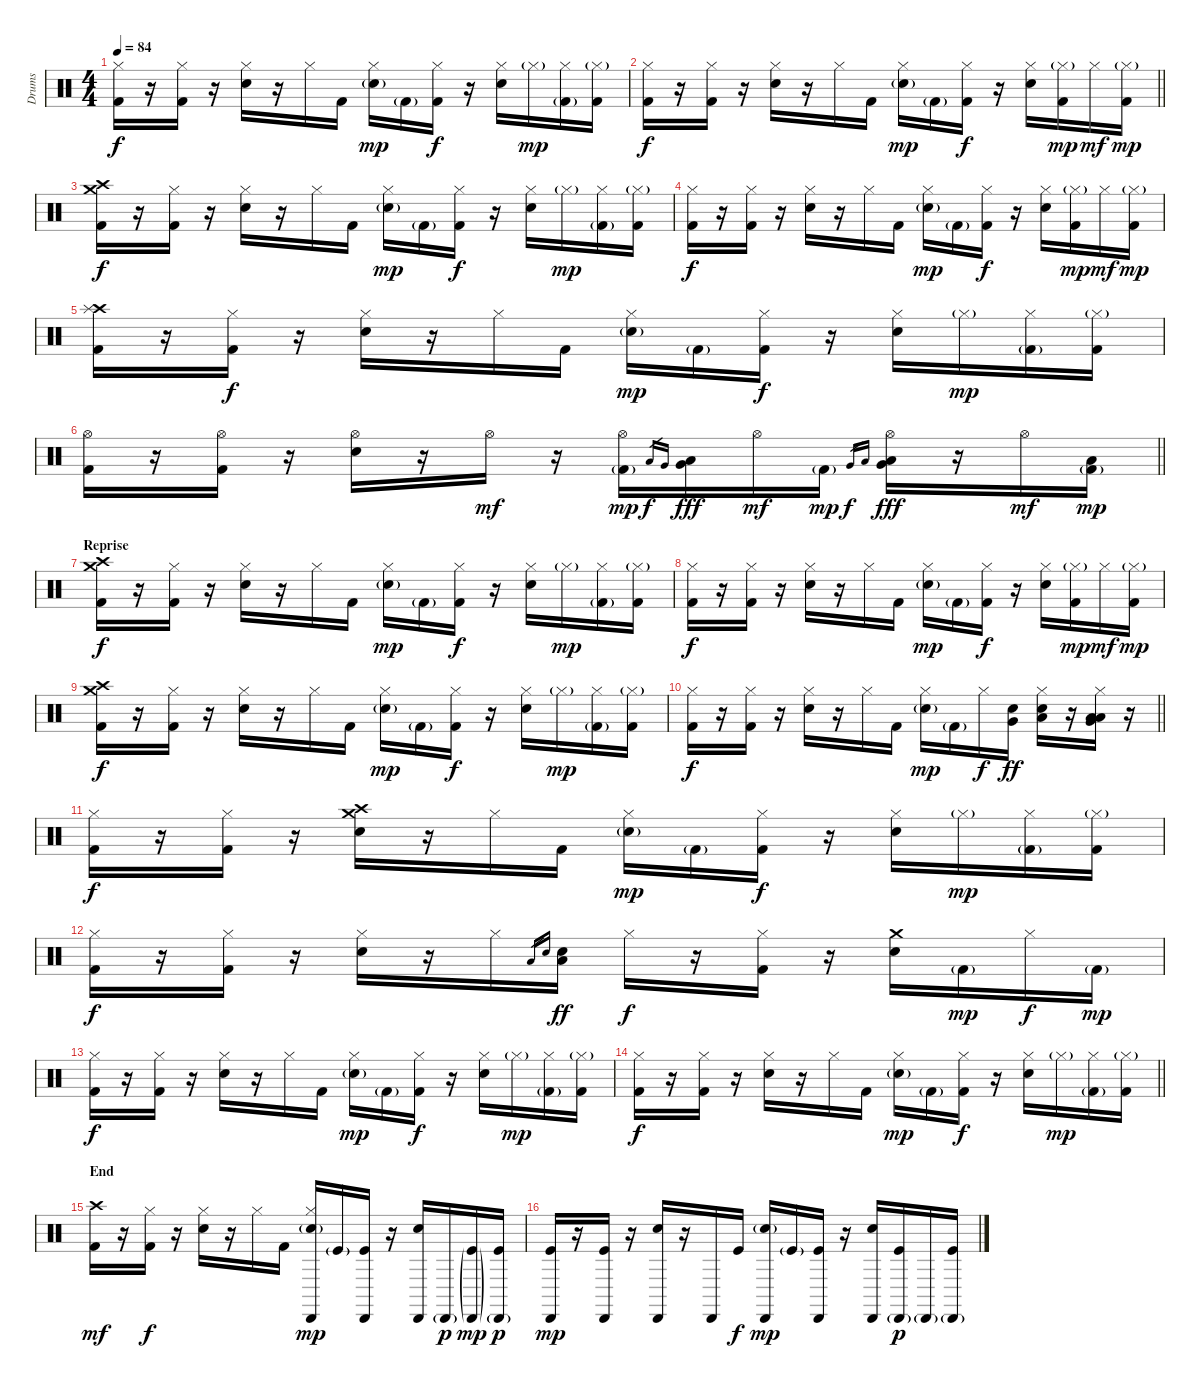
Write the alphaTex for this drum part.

\track ("Drums" "Drums") {instrument percussion}
\staff {score}
\articulation defaults
\ts (4 4)
\tempo 84
\clef neutral
\ks c
("Hi-Hat (closed)" "Kick (hit) 2").16{dy f} r.16 ("Hi-Hat (closed)" "Kick (hit) 2").16 r.16 ("Hi-Hat (closed)" "Electric Snare (hit)").16 r.16 "Hi-Hat (closed)".16 "Kick (hit) 2".16 ("Hi-Hat (closed)" "Electric Snare (hit)"{g}).16{dy mp} "Kick (hit) 2"{g}.16 ("Hi-Hat (closed)" "Kick (hit) 2").16{dy f} r.16 ("Hi-Hat (closed)" "Electric Snare (hit)").16 "Hi-Hat (closed)"{g}.16{dy mp} ("Hi-Hat (closed)" "Kick (hit) 2"{g}).16 ("Hi-Hat (closed)"{g} "Kick (hit) 2").16 |
\barLineRight lightlight
("Hi-Hat (closed)" "Kick (hit) 2").16{dy f} r.16 ("Hi-Hat (closed)" "Kick (hit) 2").16 r.16 ("Hi-Hat (closed)" "Electric Snare (hit)").16 r.16 "Hi-Hat (closed)".16 "Kick (hit) 2".16 ("Hi-Hat (closed)" "Electric Snare (hit)"{g}).16{dy mp} "Kick (hit) 2"{g}.16 ("Hi-Hat (closed)" "Kick (hit) 2").16{dy f} r.16 ("Hi-Hat (closed)" "Electric Snare (hit)").16 ("Hi-Hat (closed)"{g} "Kick (hit) 2").16{dy mp} "Hi-Hat (closed)".16{dy mf} ("Hi-Hat (closed)"{g} "Kick (hit) 2").16{dy mp} |
("Crash high (hit)" "Crash medium (hit)" "Kick (hit) 2").16{dy f} r.16 ("Hi-Hat (closed)" "Kick (hit) 2").16 r.16 ("Hi-Hat (closed)" "Electric Snare (hit)").16 r.16 "Hi-Hat (closed)".16 "Kick (hit) 2".16 ("Hi-Hat (closed)" "Electric Snare (hit)"{g}).16{dy mp} "Kick (hit) 2"{g}.16 ("Hi-Hat (closed)" "Kick (hit) 2").16{dy f} r.16 ("Hi-Hat (closed)" "Electric Snare (hit)").16 "Hi-Hat (closed)"{g}.16{dy mp} ("Hi-Hat (closed)" "Kick (hit) 2"{g}).16 ("Hi-Hat (closed)"{g} "Kick (hit) 2").16 |
("Hi-Hat (closed)" "Kick (hit) 2").16{dy f} r.16 ("Hi-Hat (closed)" "Kick (hit) 2").16 r.16 ("Hi-Hat (closed)" "Electric Snare (hit)").16 r.16 "Hi-Hat (closed)".16 "Kick (hit) 2".16 ("Hi-Hat (closed)" "Electric Snare (hit)"{g}).16{dy mp} "Kick (hit) 2"{g}.16 ("Hi-Hat (closed)" "Kick (hit) 2").16{dy f} r.16 ("Hi-Hat (closed)" "Electric Snare (hit)").16 ("Hi-Hat (closed)"{g} "Kick (hit) 2").16{dy mp} "Hi-Hat (closed)".16{dy mf} ("Hi-Hat (closed)"{g} "Kick (hit) 2").16{dy mp} |
("Crash high (hit)" "Splash (hit)" "Kick (hit) 2").16 r.16 ("Hi-Hat (closed)" "Kick (hit) 2").16{dy f} r.16 ("Hi-Hat (closed)" "Electric Snare (hit)").16 r.16 "Hi-Hat (closed)".16 "Kick (hit) 2".16 ("Hi-Hat (closed)" "Electric Snare (hit)"{g}).16{dy mp} "Kick (hit) 2"{g}.16 ("Hi-Hat (closed)" "Kick (hit) 2").16{dy f} r.16 ("Hi-Hat (closed)" "Electric Snare (hit)").16 "Hi-Hat (closed)"{g}.16{dy mp} ("Hi-Hat (closed)" "Kick (hit) 2"{g}).16 ("Hi-Hat (closed)"{g} "Kick (hit) 2").16 |
\barLineRight lightlight
("Hi-Hat (open)" "Kick (hit) 2").16 r.16 ("Hi-Hat (open)" "Kick (hit) 2").16 r.16 ("Hi-Hat (open)" "Electric Snare (hit)").16 r.16 "Hi-Hat (open)".16{dy mf} r.16 ("Hi-Hat (open)" "Kick (hit) 2"{g}).16{dy mp} "Low Tom (hit)".16{gr dy f} "Very Low Tom (hit)".16{gr} ("Low Tom (hit)" "Very Low Tom (hit)").16{dy fff} "Hi-Hat (open)".16{dy mf} "Kick (hit) 2"{g}.16{dy mp} "Very Low Tom (hit)".16{gr dy f} "Low Floor Tom (hit)".16{gr} ("Hi-Hat (open)" "Very Low Tom (hit)" "Low Floor Tom (hit)").16{dy fff} r.16 "Hi-Hat (open)".16{dy mf} ("Low Floor Tom (hit)" "Kick (hit) 2"{g}).16{dy mp} |
\section ("" "Reprise")
("Crash high (hit)" "Crash medium (hit)" "Kick (hit) 2").16{dy f} r.16 ("Hi-Hat (closed)" "Kick (hit) 2").16 r.16 ("Hi-Hat (closed)" "Electric Snare (hit)").16 r.16 "Hi-Hat (closed)".16 "Kick (hit) 2".16 ("Hi-Hat (closed)" "Electric Snare (hit)"{g}).16{dy mp} "Kick (hit) 2"{g}.16 ("Hi-Hat (closed)" "Kick (hit) 2").16{dy f} r.16 ("Hi-Hat (closed)" "Electric Snare (hit)").16 "Hi-Hat (closed)"{g}.16{dy mp} ("Hi-Hat (closed)" "Kick (hit) 2"{g}).16 ("Hi-Hat (closed)"{g} "Kick (hit) 2").16 |
("Hi-Hat (closed)" "Kick (hit) 2").16{dy f} r.16 ("Hi-Hat (closed)" "Kick (hit) 2").16 r.16 ("Hi-Hat (closed)" "Electric Snare (hit)").16 r.16 "Hi-Hat (closed)".16 "Kick (hit) 2".16 ("Hi-Hat (closed)" "Electric Snare (hit)"{g}).16{dy mp} "Kick (hit) 2"{g}.16 ("Hi-Hat (closed)" "Kick (hit) 2").16{dy f} r.16 ("Hi-Hat (closed)" "Electric Snare (hit)").16 ("Hi-Hat (closed)"{g} "Kick (hit) 2").16{dy mp} "Hi-Hat (closed)".16{dy mf} ("Hi-Hat (closed)"{g} "Kick (hit) 2").16{dy mp} |
("Crash high (hit)" "Crash medium (hit)" "Kick (hit) 2").16{dy f} r.16 ("Hi-Hat (closed)" "Kick (hit) 2").16 r.16 ("Hi-Hat (closed)" "Electric Snare (hit)").16 r.16 "Hi-Hat (closed)".16 "Kick (hit) 2".16 ("Hi-Hat (closed)" "Electric Snare (hit)"{g}).16{dy mp} "Kick (hit) 2"{g}.16 ("Hi-Hat (closed)" "Kick (hit) 2").16{dy f} r.16 ("Hi-Hat (closed)" "Electric Snare (hit)").16 "Hi-Hat (closed)"{g}.16{dy mp} ("Hi-Hat (closed)" "Kick (hit) 2"{g}).16 ("Hi-Hat (closed)"{g} "Kick (hit) 2").16 |
\barLineRight lightlight
("Hi-Hat (closed)" "Kick (hit) 2").16{dy f} r.16 ("Hi-Hat (closed)" "Kick (hit) 2").16 r.16 ("Hi-Hat (closed)" "Electric Snare (hit)").16 r.16 "Hi-Hat (closed)".16 "Kick (hit) 2".16 ("Hi-Hat (closed)" "Electric Snare (hit)"{g}).16{dy mp} "Kick (hit) 2"{g}.16 "Hi-Hat (closed)".16{dy f} ("Electric Snare (hit)" "Very Low Tom (hit)").16{dy ff} ("Hi-Hat (closed)" "Electric Snare (hit)" "Low Tom (hit)").16 r.16 ("Hi-Hat (closed)" "Low Tom (hit)" "Very Low Tom (hit)" "Low Floor Tom (hit)").16 r.16 |
("Hi-Hat (closed)" "Kick (hit) 2").16{dy f} r.16 ("Hi-Hat (closed)" "Kick (hit) 2").16 r.16 ("Crash high (hit)" "Crash medium (hit)" "Electric Snare (hit)").16 r.16 "Hi-Hat (closed)".16 "Kick (hit) 2".16 ("Hi-Hat (closed)" "Electric Snare (hit)"{g}).16{dy mp} "Kick (hit) 2"{g}.16 ("Hi-Hat (closed)" "Kick (hit) 2").16{dy f} r.16 ("Hi-Hat (closed)" "Electric Snare (hit)").16 "Hi-Hat (closed)"{g}.16{dy mp} ("Hi-Hat (closed)" "Kick (hit) 2"{g}).16 ("Hi-Hat (closed)"{g} "Kick (hit) 2").16 |
("Hi-Hat (closed)" "Kick (hit) 2").16{dy f} r.16 ("Hi-Hat (closed)" "Kick (hit) 2").16 r.16 ("Hi-Hat (closed)" "Electric Snare (hit)").16 r.16 "Hi-Hat (closed)".16 "Low Tom (hit)".16{gr} "Electric Snare (hit)".16{gr} ("Low Tom (hit)" "Electric Snare (hit)").16{dy ff} "Hi-Hat (closed)".16{dy f} r.16 ("Hi-Hat (closed)" "Kick (hit) 2").16 r.16 ("Crash medium (hit)" "Electric Snare (hit)").16 "Kick (hit) 2"{g}.16{dy mp} "Hi-Hat (closed)".16{dy f} "Kick (hit) 2"{g}.16{dy mp} |
("Hi-Hat (closed)" "Kick (hit) 2").16{dy f} r.16 ("Hi-Hat (closed)" "Kick (hit) 2").16 r.16 ("Hi-Hat (closed)" "Electric Snare (hit)").16 r.16 "Hi-Hat (closed)".16 "Kick (hit) 2".16 ("Hi-Hat (closed)" "Electric Snare (hit)"{g}).16{dy mp} "Kick (hit) 2"{g}.16 ("Hi-Hat (closed)" "Kick (hit) 2").16{dy f} r.16 ("Hi-Hat (closed)" "Electric Snare (hit)").16 "Hi-Hat (closed)"{g}.16{dy mp} ("Hi-Hat (closed)" "Kick (hit) 2"{g}).16 ("Hi-Hat (closed)"{g} "Kick (hit) 2").16 |
\barLineRight lightlight
("Hi-Hat (closed)" "Kick (hit) 2").16{dy f} r.16 ("Hi-Hat (closed)" "Kick (hit) 2").16 r.16 ("Hi-Hat (closed)" "Electric Snare (hit)").16 r.16 "Hi-Hat (closed)".16 "Kick (hit) 2".16 ("Hi-Hat (closed)" "Electric Snare (hit)"{g}).16{dy mp} "Kick (hit) 2"{g}.16 ("Hi-Hat (closed)" "Kick (hit) 2").16{dy f} r.16 ("Hi-Hat (closed)" "Electric Snare (hit)").16 "Hi-Hat (closed)"{g}.16{dy mp} ("Hi-Hat (closed)" "Kick (hit) 2"{g}).16 ("Hi-Hat (closed)"{g} "Kick (hit) 2").16 |
\section ("" "End")
("Crash high (hit)" "Kick (hit) 2").16{dy mf} r.16 ("Hi-Hat (closed)" "Kick (hit) 2").16{dy f} r.16 ("Hi-Hat (closed)" "Electric Snare (hit)").16 r.16 "Hi-Hat (closed)".16 "Kick (hit) 2".16 ("Cabasa (hit)" "Hi-Hat (closed)" "Electric Snare (hit)"{g}).16{dy mp} "Kick (hit)"{g}.16 ("Cabasa (hit)" "Kick (hit)").16 r.16 ("Cabasa (hit)" "Electric Snare (hit)").16 "Cabasa (hit)"{g}.16{dy p} ("Cabasa (hit)"{g} "Kick (hit)"{g}).16{dy mp} ("Cabasa (hit)"{g} "Kick (hit)").16{dy p} |
("Cabasa (hit)" "Kick (hit)").16{dy mp} r.16 ("Cabasa (hit)" "Kick (hit)").16 r.16 ("Cabasa (hit)" "Electric Snare (hit)").16 r.16 "Cabasa (hit)".16 "Kick (hit)".16{dy f} ("Cabasa (hit)" "Electric Snare (hit)"{g}).16{dy mp} "Kick (hit)"{g}.16 ("Cabasa (hit)" "Kick (hit)").16 r.16 ("Cabasa (hit)" "Electric Snare (hit)").16 ("Cabasa (hit)"{g} "Kick (hit)").16{dy p} "Cabasa (hit)"{g}.16 ("Cabasa (hit)"{g} "Kick (hit)").16
